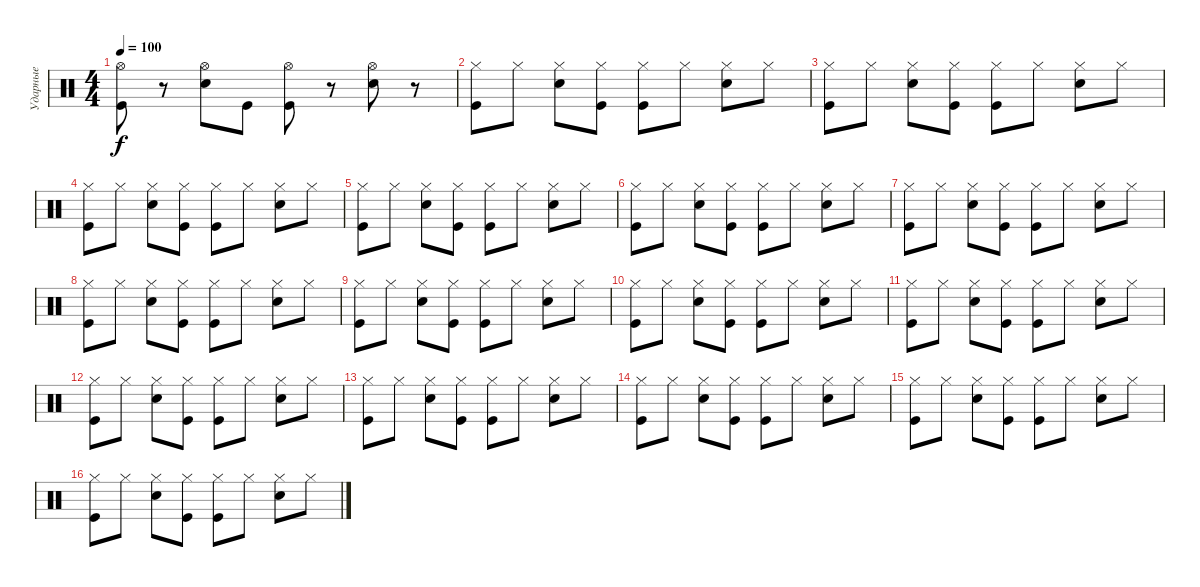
\track ("Ударные" "Ударные") {instrument percussion}
\staff
\articulation defaults
\ts (4 4)
\tempo 100
\clef neutral
\ks c
("Hi-Hat (open)" "Kick (hit)").8{dy f} r.8 ("Hi-Hat (open)" "Snare (hit) 2").8 "Kick (hit)".8 ("Hi-Hat (open)" "Kick (hit)").8 r.8 ("Hi-Hat (open)" "Snare (hit) 2").8 r.8 |
("Hi-Hat (closed)" "Kick (hit)").8 "Hi-Hat (closed)".8 ("Hi-Hat (closed)" "Snare (hit) 2").8 ("Hi-Hat (closed)" "Kick (hit)").8 ("Hi-Hat (closed)" "Kick (hit)").8 "Hi-Hat (closed)".8 ("Hi-Hat (closed)" "Snare (hit) 2").8 "Hi-Hat (closed)".8 |
("Hi-Hat (closed)" "Kick (hit)").8 "Hi-Hat (closed)".8 ("Hi-Hat (closed)" "Snare (hit) 2").8 ("Hi-Hat (closed)" "Kick (hit)").8 ("Hi-Hat (closed)" "Kick (hit)").8 "Hi-Hat (closed)".8 ("Hi-Hat (closed)" "Snare (hit) 2").8 "Hi-Hat (closed)".8 |
("Hi-Hat (closed)" "Kick (hit)").8 "Hi-Hat (closed)".8 ("Hi-Hat (closed)" "Snare (hit) 2").8 ("Hi-Hat (closed)" "Kick (hit)").8 ("Hi-Hat (closed)" "Kick (hit)").8 "Hi-Hat (closed)".8 ("Hi-Hat (closed)" "Snare (hit) 2").8 "Hi-Hat (closed)".8 |
("Hi-Hat (closed)" "Kick (hit)").8 "Hi-Hat (closed)".8 ("Hi-Hat (closed)" "Snare (hit) 2").8 ("Hi-Hat (closed)" "Kick (hit)").8 ("Hi-Hat (closed)" "Kick (hit)").8 "Hi-Hat (closed)".8 ("Hi-Hat (closed)" "Snare (hit) 2").8 "Hi-Hat (closed)".8 |
("Hi-Hat (closed)" "Kick (hit)").8 "Hi-Hat (closed)".8 ("Hi-Hat (closed)" "Snare (hit) 2").8 ("Hi-Hat (closed)" "Kick (hit)").8 ("Hi-Hat (closed)" "Kick (hit)").8 "Hi-Hat (closed)".8 ("Hi-Hat (closed)" "Snare (hit) 2").8 "Hi-Hat (closed)".8 |
("Hi-Hat (closed)" "Kick (hit)").8 "Hi-Hat (closed)".8 ("Hi-Hat (closed)" "Snare (hit) 2").8 ("Hi-Hat (closed)" "Kick (hit)").8 ("Hi-Hat (closed)" "Kick (hit)").8 "Hi-Hat (closed)".8 ("Hi-Hat (closed)" "Snare (hit) 2").8 "Hi-Hat (closed)".8 |
("Hi-Hat (closed)" "Kick (hit)").8 "Hi-Hat (closed)".8 ("Hi-Hat (closed)" "Snare (hit) 2").8 ("Hi-Hat (closed)" "Kick (hit)").8 ("Hi-Hat (closed)" "Kick (hit)").8 "Hi-Hat (closed)".8 ("Hi-Hat (closed)" "Snare (hit) 2").8 "Hi-Hat (closed)".8 |
("Hi-Hat (closed)" "Kick (hit)").8 "Hi-Hat (closed)".8 ("Hi-Hat (closed)" "Snare (hit) 2").8 ("Hi-Hat (closed)" "Kick (hit)").8 ("Hi-Hat (closed)" "Kick (hit)").8 "Hi-Hat (closed)".8 ("Hi-Hat (closed)" "Snare (hit) 2").8 "Hi-Hat (closed)".8 |
("Hi-Hat (closed)" "Kick (hit)").8 "Hi-Hat (closed)".8 ("Hi-Hat (closed)" "Snare (hit) 2").8 ("Hi-Hat (closed)" "Kick (hit)").8 ("Hi-Hat (closed)" "Kick (hit)").8 "Hi-Hat (closed)".8 ("Hi-Hat (closed)" "Snare (hit) 2").8 "Hi-Hat (closed)".8 |
("Hi-Hat (closed)" "Kick (hit)").8 "Hi-Hat (closed)".8 ("Hi-Hat (closed)" "Snare (hit) 2").8 ("Hi-Hat (closed)" "Kick (hit)").8 ("Hi-Hat (closed)" "Kick (hit)").8 "Hi-Hat (closed)".8 ("Hi-Hat (closed)" "Snare (hit) 2").8 "Hi-Hat (closed)".8 |
("Hi-Hat (closed)" "Kick (hit)").8 "Hi-Hat (closed)".8 ("Hi-Hat (closed)" "Snare (hit) 2").8 ("Hi-Hat (closed)" "Kick (hit)").8 ("Hi-Hat (closed)" "Kick (hit)").8 "Hi-Hat (closed)".8 ("Hi-Hat (closed)" "Snare (hit) 2").8 "Hi-Hat (closed)".8 |
("Hi-Hat (closed)" "Kick (hit)").8 "Hi-Hat (closed)".8 ("Hi-Hat (closed)" "Snare (hit) 2").8 ("Hi-Hat (closed)" "Kick (hit)").8 ("Hi-Hat (closed)" "Kick (hit)").8 "Hi-Hat (closed)".8 ("Hi-Hat (closed)" "Snare (hit) 2").8 "Hi-Hat (closed)".8 |
("Hi-Hat (closed)" "Kick (hit)").8 "Hi-Hat (closed)".8 ("Hi-Hat (closed)" "Snare (hit) 2").8 ("Hi-Hat (closed)" "Kick (hit)").8 ("Hi-Hat (closed)" "Kick (hit)").8 "Hi-Hat (closed)".8 ("Hi-Hat (closed)" "Snare (hit) 2").8 "Hi-Hat (closed)".8 |
("Hi-Hat (closed)" "Kick (hit)").8 "Hi-Hat (closed)".8 ("Hi-Hat (closed)" "Snare (hit) 2").8 ("Hi-Hat (closed)" "Kick (hit)").8 ("Hi-Hat (closed)" "Kick (hit)").8 "Hi-Hat (closed)".8 ("Hi-Hat (closed)" "Snare (hit) 2").8 "Hi-Hat (closed)".8 |
("Hi-Hat (closed)" "Kick (hit)").8 "Hi-Hat (closed)".8 ("Hi-Hat (closed)" "Snare (hit) 2").8 ("Hi-Hat (closed)" "Kick (hit)").8 ("Hi-Hat (closed)" "Kick (hit)").8 "Hi-Hat (closed)".8 ("Hi-Hat (closed)" "Snare (hit) 2").8 "Hi-Hat (closed)".8
